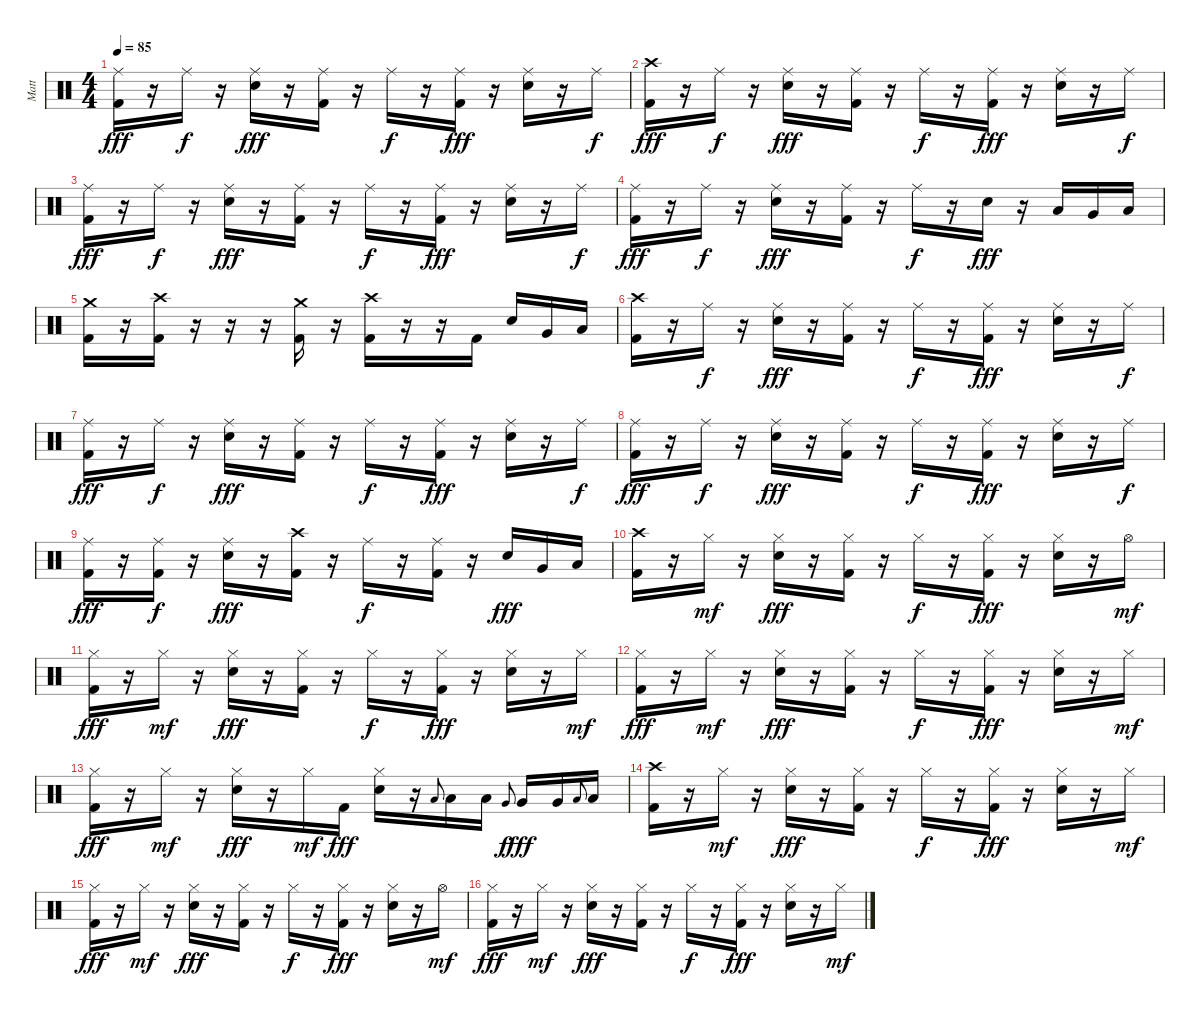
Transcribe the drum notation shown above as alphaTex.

\track ("Matt" "Matt") {instrument percussion}
\staff {score}
\articulation defaults
\ts (4 4)
\tempo 85
\clef neutral
\ks c
("Ride (middle)" "Kick (hit) 2").16{dy fff} r.16 "Ride (middle)".16{dy f} r.16 ("Ride (middle)" "Electric Snare (hit)").16{dy fff} r.16 ("Ride (middle)" "Kick (hit) 2").16 r.16 "Ride (middle)".16{dy f} r.16 ("Ride (middle)" "Kick (hit) 2").16{dy fff} r.16 ("Ride (middle)" "Electric Snare (hit)").16 r.16 "Ride (middle)".16{dy f} |
("Crash high (hit)" "Kick (hit) 2").16{dy fff} r.16 "Ride (middle)".16{dy f} r.16 ("Ride (middle)" "Electric Snare (hit)").16{dy fff} r.16 ("Ride (middle)" "Kick (hit) 2").16 r.16 "Ride (middle)".16{dy f} r.16 ("Ride (middle)" "Kick (hit) 2").16{dy fff} r.16 ("Ride (middle)" "Electric Snare (hit)").16 r.16 "Ride (middle)".16{dy f} |
("Ride (middle)" "Kick (hit) 2").16{dy fff} r.16 "Ride (middle)".16{dy f} r.16 ("Ride (middle)" "Electric Snare (hit)").16{dy fff} r.16 ("Ride (middle)" "Kick (hit) 2").16 r.16 "Ride (middle)".16{dy f} r.16 ("Ride (middle)" "Kick (hit) 2").16{dy fff} r.16 ("Ride (middle)" "Electric Snare (hit)").16 r.16 "Ride (middle)".16{dy f} |
("Ride (middle)" "Kick (hit) 2").16{dy fff} r.16 "Ride (middle)".16{dy f} r.16 ("Ride (middle)" "Electric Snare (hit)").16{dy fff} r.16 ("Ride (middle)" "Kick (hit) 2").16 r.16 "Ride (middle)".16{dy f} r.16 "Electric Snare (hit)".16{dy fff} r.16 "Low Tom (hit)".16 "Very Low Tom (hit)".16 "Low Floor Tom (hit)".16 |
("Crash medium (hit)" "Kick (hit) 2").16 r.16 ("Crash high (hit)" "Kick (hit) 2").16 r.16 r.16 r.16 ("Crash medium (hit)" "Kick (hit) 2").16 r.16 ("Crash high (hit)" "Kick (hit) 2").16 r.16 r.16 "Kick (hit) 2".16 "Electric Snare (hit)".16 "Very Low Tom (hit)".16 "Low Floor Tom (hit)".16 |
("Crash high (hit)" "Kick (hit) 2").16 r.16 "Ride (middle)".16{dy f} r.16 ("Ride (middle)" "Electric Snare (hit)").16{dy fff} r.16 ("Ride (middle)" "Kick (hit) 2").16 r.16 "Ride (middle)".16{dy f} r.16 ("Ride (middle)" "Kick (hit) 2").16{dy fff} r.16 ("Ride (middle)" "Electric Snare (hit)").16 r.16 "Ride (middle)".16{dy f} |
("Ride (middle)" "Kick (hit) 2").16{dy fff} r.16 "Ride (middle)".16{dy f} r.16 ("Ride (middle)" "Electric Snare (hit)").16{dy fff} r.16 ("Ride (middle)" "Kick (hit) 2").16 r.16 "Ride (middle)".16{dy f} r.16 ("Ride (middle)" "Kick (hit) 2").16{dy fff} r.16 ("Ride (middle)" "Electric Snare (hit)").16 r.16 "Ride (middle)".16{dy f} |
("Ride (middle)" "Kick (hit) 2").16{dy fff} r.16 "Ride (middle)".16{dy f} r.16 ("Ride (middle)" "Electric Snare (hit)").16{dy fff} r.16 ("Ride (middle)" "Kick (hit) 2").16 r.16 "Ride (middle)".16{dy f} r.16 ("Ride (middle)" "Kick (hit) 2").16{dy fff} r.16 ("Ride (middle)" "Electric Snare (hit)").16 r.16 "Ride (middle)".16{dy f} |
("Ride (middle)" "Kick (hit) 2").16{dy fff} r.16 ("Ride (middle)" "Kick (hit) 2").16{dy f} r.16 ("Ride (middle)" "Electric Snare (hit)").16{dy fff} r.16 ("Crash high (hit)" "Kick (hit) 2").16 r.16 "Ride (middle)".16{dy f} r.16 ("Ride (middle)" "Kick (hit) 2").16 r.16 "Electric Snare (hit)".16{dy fff} "Very Low Tom (hit)".16 "Low Floor Tom (hit)".16 |
("Crash high (hit)" "Kick (hit) 2").16 r.16 "Hi-Hat (closed)".16{dy mf} r.16 ("Hi-Hat (closed)" "Electric Snare (hit)").16{dy fff} r.16 ("Hi-Hat (closed)" "Kick (hit) 2").16 r.16 "Hi-Hat (closed)".16{dy f} r.16 ("Hi-Hat (closed)" "Kick (hit) 2").16{dy fff} r.16 ("Hi-Hat (closed)" "Electric Snare (hit)").16 r.16 "Hi-Hat (open)".16{dy mf} |
("Hi-Hat (closed)" "Kick (hit) 2").16{dy fff} r.16 "Hi-Hat (closed)".16{dy mf} r.16 ("Hi-Hat (closed)" "Electric Snare (hit)").16{dy fff} r.16 ("Hi-Hat (closed)" "Kick (hit) 2").16 r.16 "Hi-Hat (closed)".16{dy f} r.16 ("Hi-Hat (closed)" "Kick (hit) 2").16{dy fff} r.16 ("Hi-Hat (closed)" "Electric Snare (hit)").16 r.16 "Hi-Hat (closed)".16{dy mf} |
("Hi-Hat (closed)" "Kick (hit) 2").16{dy fff} r.16 "Hi-Hat (closed)".16{dy mf} r.16 ("Hi-Hat (closed)" "Electric Snare (hit)").16{dy fff} r.16 ("Hi-Hat (closed)" "Kick (hit) 2").16 r.16 "Hi-Hat (closed)".16{dy f} r.16 ("Hi-Hat (closed)" "Kick (hit) 2").16{dy fff} r.16 ("Hi-Hat (closed)" "Electric Snare (hit)").16 r.16 "Hi-Hat (closed)".16{dy mf} |
("Hi-Hat (closed)" "Kick (hit) 2").16{dy fff} r.16 "Hi-Hat (closed)".16{dy mf} r.16 ("Hi-Hat (closed)" "Electric Snare (hit)").16{dy fff} r.16 "Hi-Hat (closed)".16{dy mf} "Kick (hit) 2".16{dy fff} ("Hi-Hat (closed)" "Electric Snare (hit)").16 r.16 "Low Tom (hit)".8{gr onbeat} "Low Tom (hit)".16 "Low Tom (hit)".16 "Very Low Tom (hit)".8{gr onbeat dy f} "Very Low Tom (hit)".16{dy fff} "Very Low Tom (hit)".16 "Low Floor Tom (hit)".8{gr onbeat} "Low Floor Tom (hit)".16 |
("Crash high (hit)" "Kick (hit) 2").16 r.16 "Hi-Hat (closed)".16{dy mf} r.16 ("Hi-Hat (closed)" "Electric Snare (hit)").16{dy fff} r.16 ("Hi-Hat (closed)" "Kick (hit) 2").16 r.16 "Hi-Hat (closed)".16{dy f} r.16 ("Hi-Hat (closed)" "Kick (hit) 2").16{dy fff} r.16 ("Hi-Hat (closed)" "Electric Snare (hit)").16 r.16 "Hi-Hat (closed)".16{dy mf} |
("Hi-Hat (closed)" "Kick (hit) 2").16{dy fff} r.16 "Hi-Hat (closed)".16{dy mf} r.16 ("Hi-Hat (closed)" "Electric Snare (hit)").16{dy fff} r.16 ("Hi-Hat (closed)" "Kick (hit) 2").16 r.16 "Hi-Hat (closed)".16{dy f} r.16 ("Hi-Hat (closed)" "Kick (hit) 2").16{dy fff} r.16 ("Hi-Hat (closed)" "Electric Snare (hit)").16 r.16 "Hi-Hat (open)".16{dy mf} |
("Hi-Hat (closed)" "Kick (hit) 2").16{dy fff} r.16 "Hi-Hat (closed)".16{dy mf} r.16 ("Hi-Hat (closed)" "Electric Snare (hit)").16{dy fff} r.16 ("Hi-Hat (closed)" "Kick (hit) 2").16 r.16 "Hi-Hat (closed)".16{dy f} r.16 ("Hi-Hat (closed)" "Kick (hit) 2").16{dy fff} r.16 ("Hi-Hat (closed)" "Electric Snare (hit)").16 r.16 "Hi-Hat (closed)".16{dy mf}
